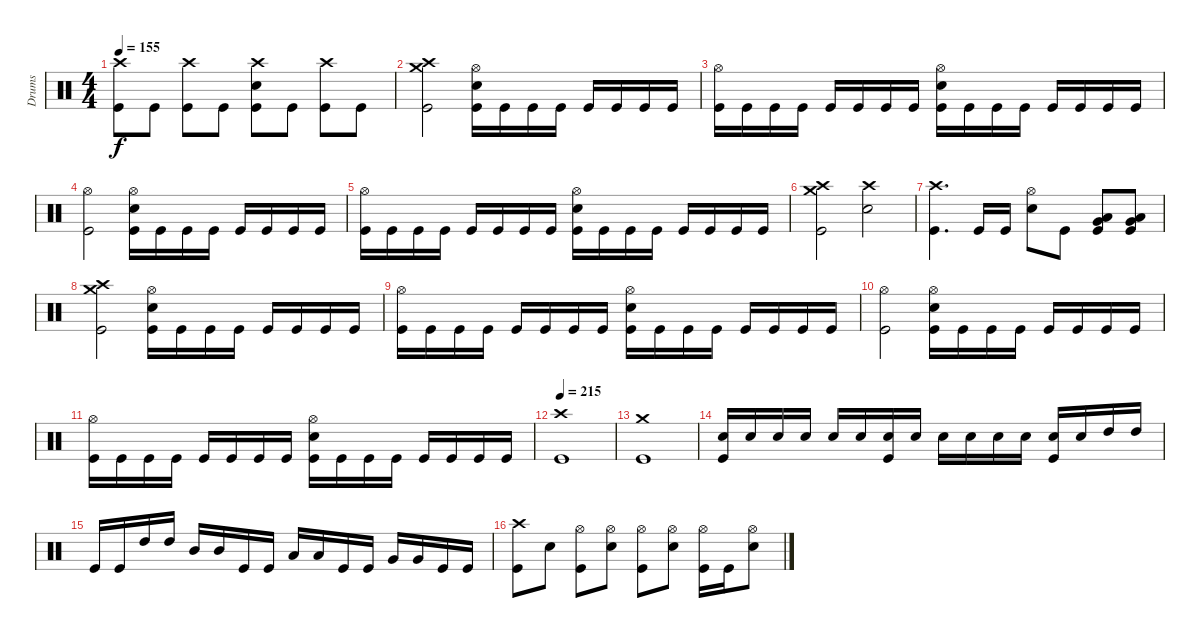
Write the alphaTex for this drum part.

\track ("Drums" "Drums") {instrument percussion}
\staff {score}
\articulation defaults
\ts (4 4)
\tempo 155
\clef neutral
\ks c
("Crash high (hit)" "Kick (hit)").8{dy f} "Kick (hit)".8 ("Crash high (hit)" "Kick (hit)").8 "Kick (hit)".8 ("Crash high (hit)" "Snare (hit) 2" "Kick (hit)").8 "Kick (hit)".8 ("Crash high (hit)" "Kick (hit)").8 "Kick (hit)".8 |
("Crash high (hit)" "Crash medium (hit)" "Kick (hit)").2 ("Hi-Hat (open)" "Snare (hit) 2" "Kick (hit)").16 "Kick (hit)".16 "Kick (hit)".16 "Kick (hit)".16 "Kick (hit)".16 "Kick (hit)".16 "Kick (hit)".16 "Kick (hit)".16 |
("Hi-Hat (open)" "Kick (hit)").16 "Kick (hit)".16 "Kick (hit)".16 "Kick (hit)".16 "Kick (hit)".16 "Kick (hit)".16 "Kick (hit)".16 "Kick (hit)".16 ("Hi-Hat (open)" "Snare (hit) 2" "Kick (hit)").16 "Kick (hit)".16 "Kick (hit)".16 "Kick (hit)".16 "Kick (hit)".16 "Kick (hit)".16 "Kick (hit)".16 "Kick (hit)".16 |
("Hi-Hat (open)" "Kick (hit)").2 ("Hi-Hat (open)" "Snare (hit) 2" "Kick (hit)").16 "Kick (hit)".16 "Kick (hit)".16 "Kick (hit)".16 "Kick (hit)".16 "Kick (hit)".16 "Kick (hit)".16 "Kick (hit)".16 |
("Hi-Hat (open)" "Kick (hit)").16 "Kick (hit)".16 "Kick (hit)".16 "Kick (hit)".16 "Kick (hit)".16 "Kick (hit)".16 "Kick (hit)".16 "Kick (hit)".16 ("Hi-Hat (open)" "Snare (hit) 2" "Kick (hit)").16 "Kick (hit)".16 "Kick (hit)".16 "Kick (hit)".16 "Kick (hit)".16 "Kick (hit)".16 "Kick (hit)".16 "Kick (hit)".16 |
("Crash high (hit)" "Crash medium (hit)" "Kick (hit)").2 ("Crash high (hit)" "Snare (hit) 2").2 |
("Crash high (hit)" "Kick (hit)").4{d} "Kick (hit)".16 "Kick (hit)".16 ("Hi-Hat (open)" "Snare (hit) 2").8 "Kick (hit)".8 ("Very Low Tom (hit)" "Low Tom (hit)" "Kick (hit)").8 ("Very Low Tom (hit)" "Low Tom (hit)" "Kick (hit)").8 |
("Crash high (hit)" "Crash medium (hit)" "Kick (hit)").2 ("Hi-Hat (open)" "Snare (hit) 2" "Kick (hit)").16 "Kick (hit)".16 "Kick (hit)".16 "Kick (hit)".16 "Kick (hit)".16 "Kick (hit)".16 "Kick (hit)".16 "Kick (hit)".16 |
("Hi-Hat (open)" "Kick (hit)").16 "Kick (hit)".16 "Kick (hit)".16 "Kick (hit)".16 "Kick (hit)".16 "Kick (hit)".16 "Kick (hit)".16 "Kick (hit)".16 ("Hi-Hat (open)" "Snare (hit) 2" "Kick (hit)").16 "Kick (hit)".16 "Kick (hit)".16 "Kick (hit)".16 "Kick (hit)".16 "Kick (hit)".16 "Kick (hit)".16 "Kick (hit)".16 |
("Hi-Hat (open)" "Kick (hit)").2 ("Hi-Hat (open)" "Snare (hit) 2" "Kick (hit)").16 "Kick (hit)".16 "Kick (hit)".16 "Kick (hit)".16 "Kick (hit)".16 "Kick (hit)".16 "Kick (hit)".16 "Kick (hit)".16 |
("Hi-Hat (open)" "Kick (hit)").16 "Kick (hit)".16 "Kick (hit)".16 "Kick (hit)".16 "Kick (hit)".16 "Kick (hit)".16 "Kick (hit)".16 "Kick (hit)".16 ("Hi-Hat (open)" "Snare (hit) 2" "Kick (hit)").16 "Kick (hit)".16 "Kick (hit)".16 "Kick (hit)".16 "Kick (hit)".16 "Kick (hit)".16 "Kick (hit)".16 "Kick (hit)".16 |
\tempo 215
("Crash high (hit)" "Kick (hit)").1 |
("Crash medium (hit)" "Kick (hit)").1 |
("Snare (hit) 2" "Kick (hit)").16 "Snare (hit) 2".16 "Snare (hit) 2".16 "Snare (hit) 2".16 "Snare (hit) 2".16 "Snare (hit) 2".16 ("Snare (hit) 2" "Kick (hit)").16 "Snare (hit) 2".16 "Snare (hit) 2".16 "Snare (hit) 2".16 "Snare (hit) 2".16 "Snare (hit) 2".16 ("Snare (hit) 2" "Kick (hit)").16 "Snare (hit) 2".16 "High Tom (hit)".16 "High Tom (hit)".16 |
"Kick (hit)".16 "Kick (hit)".16 "High Tom (hit)".16 "High Tom (hit)".16 "Mid Tom (hit)".16 "Mid Tom (hit)".16 "Kick (hit)".16 "Kick (hit)".16 "Low Tom (hit)".16 "Low Tom (hit)".16 "Kick (hit)".16 "Kick (hit)".16 "Very Low Tom (hit)".16 "Very Low Tom (hit)".16 "Kick (hit)".16 "Kick (hit)".16 |
("Crash high (hit)" "Kick (hit)").8 "Snare (hit) 2".8 ("Hi-Hat (open)" "Kick (hit)").8 ("Hi-Hat (open)" "Snare (hit) 2").8 ("Hi-Hat (open)" "Kick (hit)").8 ("Hi-Hat (open)" "Snare (hit) 2").8 ("Hi-Hat (open)" "Kick (hit)").16 "Kick (hit)".16 ("Hi-Hat (open)" "Snare (hit) 2").8
